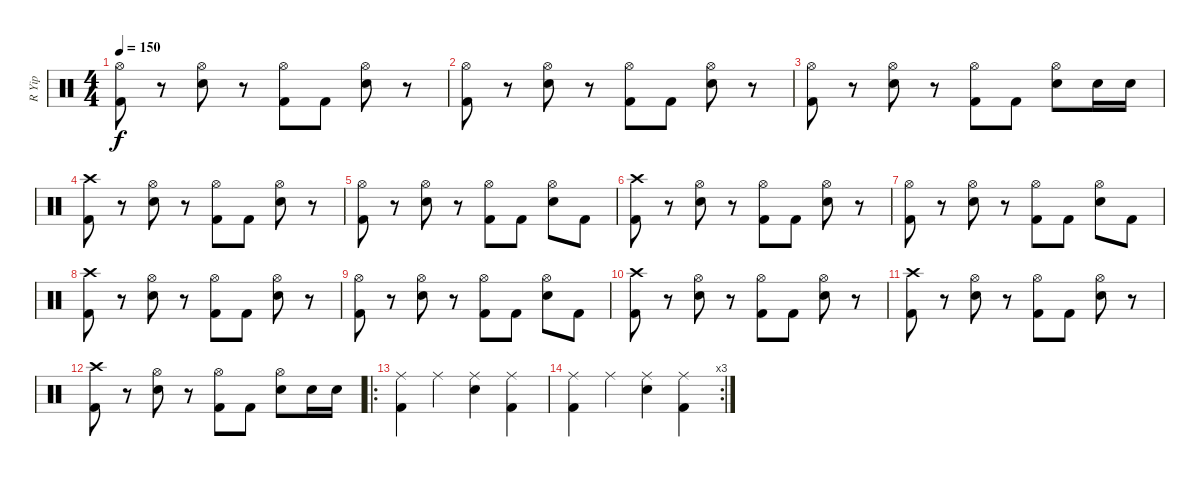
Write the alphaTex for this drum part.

\track ("R Yip" "R Yip") {instrument percussion}
\staff {score}
\articulation defaults
\ts (4 4)
\tempo 150
\clef neutral
\ks c
("Hi-Hat (open)" "Kick (hit) 2").8{dy f} r.8 ("Hi-Hat (open)" "Electric Snare (hit)").8 r.8 ("Hi-Hat (open)" "Kick (hit) 2").8 "Kick (hit) 2".8 ("Hi-Hat (open)" "Electric Snare (hit)").8 r.8 |
("Hi-Hat (open)" "Kick (hit) 2").8 r.8 ("Hi-Hat (open)" "Electric Snare (hit)").8 r.8 ("Hi-Hat (open)" "Kick (hit) 2").8 "Kick (hit) 2".8 ("Hi-Hat (open)" "Electric Snare (hit)").8 r.8 |
("Hi-Hat (open)" "Kick (hit) 2").8 r.8 ("Hi-Hat (open)" "Electric Snare (hit)").8 r.8 ("Hi-Hat (open)" "Kick (hit) 2").8 "Kick (hit) 2".8 ("Hi-Hat (open)" "Electric Snare (hit)").8 "Electric Snare (hit)".16 "Electric Snare (hit)".16 |
("Crash high (hit)" "Kick (hit) 2").8 r.8 ("Hi-Hat (open)" "Electric Snare (hit)").8 r.8 ("Hi-Hat (open)" "Kick (hit) 2").8 "Kick (hit) 2".8 ("Hi-Hat (open)" "Electric Snare (hit)").8 r.8 |
("Hi-Hat (open)" "Kick (hit) 2").8 r.8 ("Hi-Hat (open)" "Electric Snare (hit)").8 r.8 ("Hi-Hat (open)" "Kick (hit) 2").8 "Kick (hit) 2".8 ("Hi-Hat (open)" "Electric Snare (hit)").8 "Kick (hit) 2".8 |
("Crash high (hit)" "Kick (hit) 2").8 r.8 ("Hi-Hat (open)" "Electric Snare (hit)").8 r.8 ("Hi-Hat (open)" "Kick (hit) 2").8 "Kick (hit) 2".8 ("Hi-Hat (open)" "Electric Snare (hit)").8 r.8 |
("Hi-Hat (open)" "Kick (hit) 2").8 r.8 ("Hi-Hat (open)" "Electric Snare (hit)").8 r.8 ("Hi-Hat (open)" "Kick (hit) 2").8 "Kick (hit) 2".8 ("Hi-Hat (open)" "Electric Snare (hit)").8 "Kick (hit) 2".8 |
("Crash high (hit)" "Kick (hit) 2").8 r.8 ("Hi-Hat (open)" "Electric Snare (hit)").8 r.8 ("Hi-Hat (open)" "Kick (hit) 2").8 "Kick (hit) 2".8 ("Hi-Hat (open)" "Electric Snare (hit)").8 r.8 |
("Hi-Hat (open)" "Kick (hit) 2").8 r.8 ("Hi-Hat (open)" "Electric Snare (hit)").8 r.8 ("Hi-Hat (open)" "Kick (hit) 2").8 "Kick (hit) 2".8 ("Hi-Hat (open)" "Electric Snare (hit)").8 "Kick (hit) 2".8 |
("Crash high (hit)" "Kick (hit) 2").8 r.8 ("Hi-Hat (open)" "Electric Snare (hit)").8 r.8 ("Hi-Hat (open)" "Kick (hit) 2").8 "Kick (hit) 2".8 ("Hi-Hat (open)" "Electric Snare (hit)").8 r.8 |
("Crash high (hit)" "Kick (hit) 2").8 r.8 ("Hi-Hat (open)" "Electric Snare (hit)").8 r.8 ("Hi-Hat (open)" "Kick (hit) 2").8 "Kick (hit) 2".8 ("Hi-Hat (open)" "Electric Snare (hit)").8 r.8 |
("Crash high (hit)" "Kick (hit) 2").8 r.8 ("Hi-Hat (open)" "Electric Snare (hit)").8 r.8 ("Hi-Hat (open)" "Kick (hit) 2").8 "Kick (hit) 2".8 ("Hi-Hat (open)" "Electric Snare (hit)").8 "Electric Snare (hit)".16 "Electric Snare (hit)".16 |
\ro
("Ride (middle)" "Kick (hit) 2").4 "Ride (middle)".4 ("Ride (middle)" "Electric Snare (hit)").4 ("Ride (middle)" "Kick (hit) 2").4 |
\rc 3
("Ride (middle)" "Kick (hit) 2").4 "Ride (middle)".4 ("Ride (middle)" "Electric Snare (hit)").4 ("Ride (middle)" "Kick (hit) 2").4
